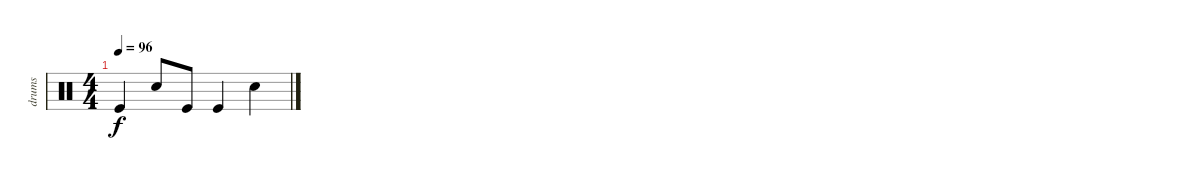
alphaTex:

\track ("drums" "drums") {instrument percussion}
\staff {score}
\articulation defaults
\ts (4 4)
\tempo 96
\clef neutral
\ks c "Kick (hit)".4{dy f} "Snare (hit) 2".8 "Kick (hit)".8 "Kick (hit)".4 "Snare (hit) 2".4
